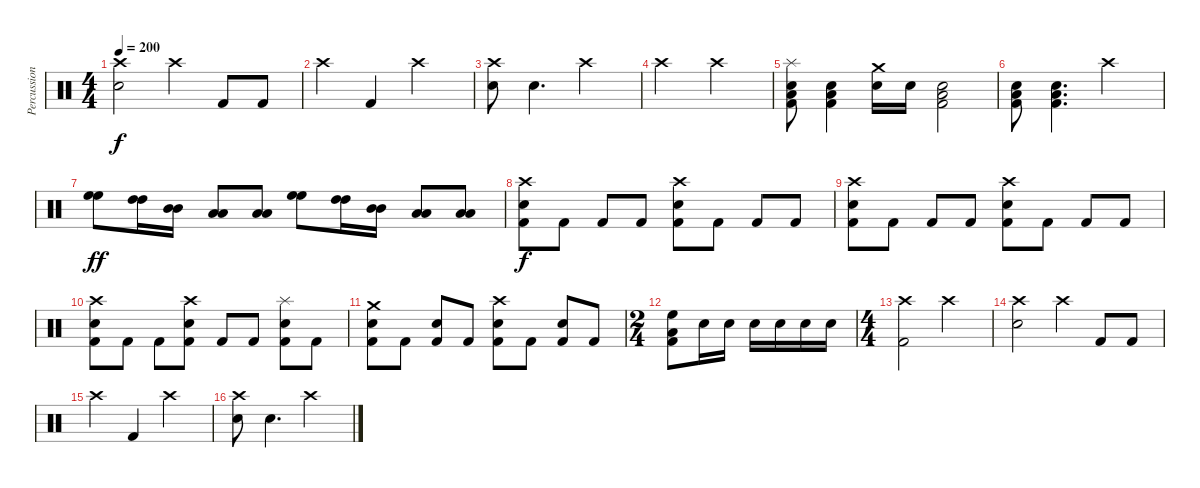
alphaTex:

\track ("Percussion" "Percussion") {instrument percussion}
\staff {score}
\articulation defaults
\ts (4 4)
\tempo 200
\clef neutral
\ks c
("Crash high (hit)" "Snare (hit) 2").2{dy f} "Crash high (hit)".4 "Kick (hit) 2".8 "Kick (hit) 2".8 |
"Crash high (hit)".4 "Kick (hit) 2".4 "Crash high (hit)".2 |
("Crash high (hit)" "Snare (hit) 2").8 "Snare (hit) 2".4{d} "Crash high (hit)".2 |
"Crash high (hit)".2 "Crash high (hit)".2 |
("Splash (hit)" "Snare (hit) 2" "Low Tom (hit)" "Kick (hit) 2").8 ("Snare (hit) 2" "Low Tom (hit)" "Kick (hit) 2").4 ("Crash medium (hit)" "Snare (hit) 2").16 "Snare (hit) 2".16 ("Snare (hit) 2" "Low Tom (hit)" "Kick (hit) 2").2 |
("Snare (hit) 2" "Low Tom (hit)" "Kick (hit) 2").8 ("Snare (hit) 2" "Low Tom (hit)" "Kick (hit) 2").4{d} "Crash high (hit)".2 |
("High Floor Tom (hit)" "High Floor Tom (hit)").8{dy ff} ("High Tom (hit)" "High Tom (hit)").16 ("Mid Tom (hit)" "Mid Tom (hit)").16 ("Low Tom (hit)" "Low Tom (hit)").8 ("Low Tom (hit)" "Low Tom (hit)").8 ("High Floor Tom (hit)" "High Floor Tom (hit)").8 ("High Tom (hit)" "High Tom (hit)").16 ("Mid Tom (hit)" "Mid Tom (hit)").16 ("Low Tom (hit)" "Low Tom (hit)").8 ("Low Tom (hit)" "Low Tom (hit)").8 |
("Crash high (hit)" "Snare (hit) 2" "Kick (hit) 2").8{dy f} "Kick (hit) 2".8 "Kick (hit) 2".8 "Kick (hit) 2".8 ("Crash high (hit)" "Snare (hit) 2" "Kick (hit) 2").8 "Kick (hit) 2".8 "Kick (hit) 2".8 "Kick (hit) 2".8 |
("Crash high (hit)" "Snare (hit) 2" "Kick (hit) 2").8 "Kick (hit) 2".8 "Kick (hit) 2".8 "Kick (hit) 2".8 ("Crash high (hit)" "Snare (hit) 2" "Kick (hit) 2").8 "Kick (hit) 2".8 "Kick (hit) 2".8 "Kick (hit) 2".8 |
("Crash high (hit)" "Snare (hit) 2" "Kick (hit) 2").8 "Kick (hit) 2".8 "Kick (hit) 2".8 ("Crash high (hit)" "Snare (hit) 2" "Kick (hit) 2").8 "Kick (hit) 2".8 "Kick (hit) 2".8 ("Splash (hit)" "Snare (hit) 2" "Kick (hit) 2").8 "Kick (hit) 2".8 |
("Crash medium (hit)" "Snare (hit) 2" "Kick (hit) 2").8 "Kick (hit) 2".8 ("Snare (hit) 2" "Kick (hit) 2").8 "Kick (hit) 2".8 ("Crash high (hit)" "Snare (hit) 2" "Kick (hit) 2").8 "Kick (hit) 2".8 ("Snare (hit) 2" "Kick (hit) 2").8 "Kick (hit) 2".8 |
\ts (2 4)
("High Floor Tom (hit)" "Low Tom (hit)" "Kick (hit) 2").8 "Snare (hit) 2".16 "Snare (hit) 2".16 "Snare (hit) 2".16 "Snare (hit) 2".16 "Snare (hit) 2".16 "Snare (hit) 2".16 |
\ts (4 4)
("Crash high (hit)" "Kick (hit) 2").2 "Crash high (hit)".2 |
("Crash high (hit)" "Snare (hit) 2").2 "Crash high (hit)".4 "Kick (hit) 2".8 "Kick (hit) 2".8 |
"Crash high (hit)".4 "Kick (hit) 2".4 "Crash high (hit)".2 |
("Crash high (hit)" "Snare (hit) 2").8 "Snare (hit) 2".4{d} "Crash high (hit)".2
